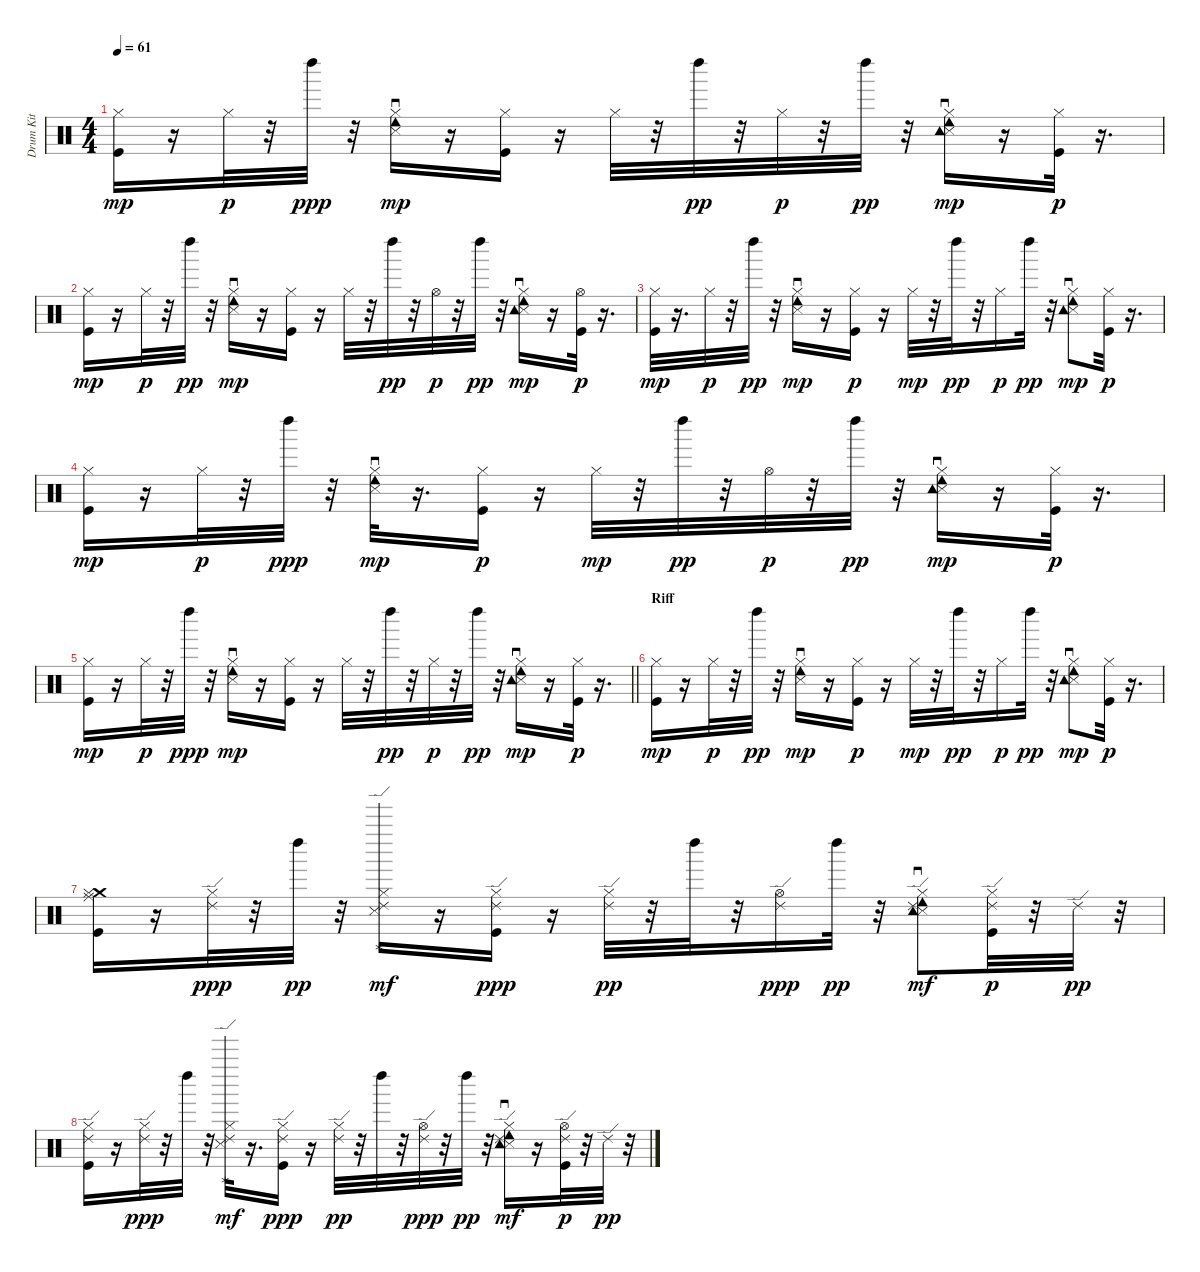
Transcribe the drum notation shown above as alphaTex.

\track ("Drum Kit" "Drum Kit") {instrument percussion}
\staff {score}
\articulation defaults
\ts (4 4)
\tempo 61
\clef neutral
\ks c
("Kick (hit)" "Hi-Hat (closed)").16{dy mp} r.16 "Hi-Hat (closed)".32{dy p} r.32 "Left Maraca (hit)".32{dy ppp} r.32 ("Hi-Hat (closed)" "Snare (side stick) 3" "Tambourine (roll)").16{dy mp} r.16 ("Kick (hit)" "Hi-Hat (closed)").16 r.16 "Hi-Hat (closed)".32 r.32 "Left Maraca (hit)".32{dy pp} r.32 "Hi-Hat (closed)".32{dy p} r.32 "Left Maraca (hit)".32{dy pp} r.32 ("Hi-Hat (closed)" "Snare (side stick) 3" "Tambourine (roll)" "Tambourine (hit)").16{dy mp} r.16 ("Kick (hit)" "Hi-Hat (closed)").32{dy p} r.16{d} |
("Kick (hit)" "Hi-Hat (closed)").16{dy mp} r.16 "Hi-Hat (closed)".32{dy p} r.32 "Left Maraca (hit)".32{dy pp} r.32 ("Hi-Hat (closed)" "Snare (side stick) 3" "Tambourine (roll)").16{dy mp} r.16 ("Kick (hit)" "Hi-Hat (closed)").16 r.16 "Hi-Hat (closed)".32 r.32 "Left Maraca (hit)".32{dy pp} r.32 "Hi-Hat (open)".32{dy p} r.32 "Left Maraca (hit)".32{dy pp} r.32 ("Hi-Hat (closed)" "Snare (side stick) 3" "Tambourine (roll)" "Tambourine (hit)").16{dy mp} r.16 ("Kick (hit)" "Hi-Hat (open)").32{dy p} r.16{d} |
("Kick (hit)" "Hi-Hat (closed)").32{dy mp} r.16{d} "Hi-Hat (closed)".32{dy p} r.32 "Left Maraca (hit)".32{dy pp} r.32 ("Hi-Hat (closed)" "Snare (side stick) 3" "Tambourine (roll)").16{dy mp} r.16 ("Kick (hit)" "Hi-Hat (closed)").16{dy p} r.16 "Hi-Hat (closed)".32{dy mp} r.32 "Left Maraca (hit)".32{dy pp} r.32 "Hi-Hat (closed)".16{dy p} "Left Maraca (hit)".32{dy pp} r.32 ("Hi-Hat (closed)" "Snare (side stick) 3" "Tambourine (roll)" "Tambourine (hit)").8{dy mp} ("Kick (hit)" "Hi-Hat (closed)").32{dy p} r.16{d} |
("Kick (hit)" "Hi-Hat (closed)").16{dy mp} r.16 "Hi-Hat (closed)".32{dy p} r.32 "Left Maraca (hit)".32{dy ppp} r.32 ("Hi-Hat (closed)" "Snare (side stick) 3" "Tambourine (roll)").32{dy mp} r.16{d} ("Kick (hit)" "Hi-Hat (closed)").16{dy p} r.16 "Hi-Hat (closed)".32{dy mp} r.32 "Left Maraca (hit)".32{dy pp} r.32 "Hi-Hat (open)".32{dy p} r.32 "Left Maraca (hit)".32{dy pp} r.32 ("Hi-Hat (closed)" "Snare (side stick) 3" "Tambourine (roll)" "Tambourine (hit)").16{dy mp} r.16 ("Kick (hit)" "Hi-Hat (closed)").32{dy p} r.16{d} |
\barLineRight lightlight
("Kick (hit)" "Hi-Hat (closed)").16{dy mp} r.16 "Hi-Hat (closed)".32{dy p} r.32 "Left Maraca (hit)".32{dy ppp} r.32 ("Hi-Hat (closed)" "Snare (side stick) 3" "Tambourine (roll)").16{dy mp} r.16 ("Kick (hit)" "Hi-Hat (closed)").16 r.16 "Hi-Hat (closed)".32 r.32 "Left Maraca (hit)".32{dy pp} r.32 "Hi-Hat (closed)".32{dy p} r.32 "Left Maraca (hit)".32{dy pp} r.32 ("Hi-Hat (closed)" "Snare (side stick) 3" "Tambourine (roll)" "Tambourine (hit)").16{dy mp} r.16 ("Kick (hit)" "Hi-Hat (closed)").32{dy p} r.16{d} |
\section ("" "Riff")
("Kick (hit)" "Hi-Hat (closed)").16{dy mp} r.16 "Hi-Hat (closed)".32{dy p} r.32 "Left Maraca (hit)".32{dy pp} r.32 ("Hi-Hat (closed)" "Snare (side stick) 3" "Tambourine (roll)").16{dy mp} r.16 ("Kick (hit)" "Hi-Hat (closed)").16{dy p} r.16 "Hi-Hat (closed)".32{dy mp} r.32 "Left Maraca (hit)".32{dy pp} r.32 "Hi-Hat (closed)".16{dy p} "Left Maraca (hit)".32{dy pp} r.32 ("Hi-Hat (closed)" "Snare (side stick) 3" "Tambourine (roll)" "Tambourine (hit)").8{dy mp} ("Kick (hit)" "Hi-Hat (closed)").32{dy p} r.16{d} |
("Crash medium (hit)" "Kick (hit)" "Hi-Hat (closed)" "Ride (middle)").16 r.16 ("Hi-Hat (closed)" "Ride (edge) 2").32{dy ppp} r.32 "Left Maraca (hit)".32{dy pp} r.32 ("Hi-Hat (closed)" "Ride (edge) 2" "Snare (side stick) 3" "Golpe (thumb)").16{dy mf} r.16 ("Kick (hit)" "Hi-Hat (closed)" "Ride (edge) 2").16{dy ppp} r.16 ("Hi-Hat (closed)" "Ride (edge) 2").32{dy pp} r.32 "Left Maraca (hit)".32 r.32 ("Hi-Hat (open)" "Ride (edge) 2").16{dy ppp} "Left Maraca (hit)".32{dy pp} r.32 ("Hi-Hat (closed)" "Ride (edge) 2" "Snare (side stick) 3" "Tambourine (roll)" "Tambourine (hit)").8{dy mf} ("Kick (hit)" "Ride (edge) 2" "Hi-Hat (closed)").32{dy p} r.32 "Ride (edge) 2".32{dy pp} r.32 |
("Kick (hit)" "Hi-Hat (closed)" "Ride (edge) 2").16 r.16 ("Hi-Hat (closed)" "Ride (edge) 2").32{dy ppp} r.32 "Left Maraca (hit)".32 r.32 ("Hi-Hat (closed)" "Ride (edge) 2" "Snare (side stick) 3" "Golpe (thumb)").32{dy mf} r.16{d} ("Kick (hit)" "Hi-Hat (closed)" "Ride (edge) 2").16{dy ppp} r.16 ("Hi-Hat (closed)" "Ride (edge) 2").32{dy pp} r.32 "Left Maraca (hit)".32 r.32 ("Hi-Hat (open)" "Ride (edge) 2").32{dy ppp} r.32 "Left Maraca (hit)".32{dy pp} r.32 ("Hi-Hat (closed)" "Ride (edge) 2" "Snare (side stick) 3" "Tambourine (roll)" "Tambourine (hit)").16{dy mf} r.16 ("Kick (hit)" "Ride (edge) 2" "Hi-Hat (open)").32{dy p} r.32 "Ride (edge) 2".32{dy pp} r.32
